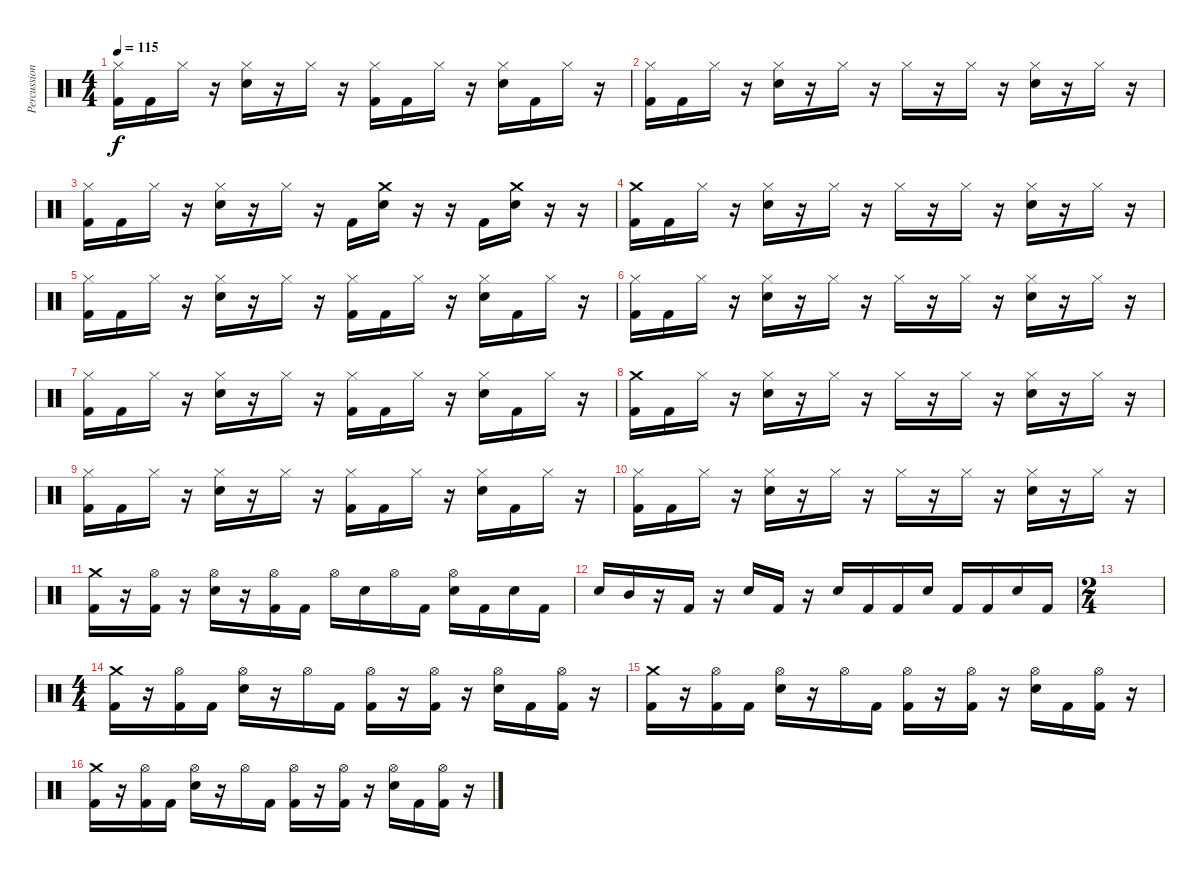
\track ("Percussion" "Percussion") {instrument percussion}
\staff {score}
\articulation defaults
\ts (4 4)
\tempo 115
\clef neutral
\ks c
("Hi-Hat (closed)" "Kick (hit) 2").16{dy f} "Kick (hit) 2".16 "Hi-Hat (closed)".16 r.16 ("Hi-Hat (closed)" "Electric Snare (hit)").16 r.16 "Hi-Hat (closed)".16 r.16 ("Hi-Hat (closed)" "Kick (hit) 2").16 "Kick (hit) 2".16 "Hi-Hat (closed)".16 r.16 ("Hi-Hat (closed)" "Electric Snare (hit)").16 "Kick (hit) 2".16 "Hi-Hat (closed)".16 r.16 |
("Hi-Hat (closed)" "Kick (hit) 2").16 "Kick (hit) 2".16 "Hi-Hat (closed)".16 r.16 ("Hi-Hat (closed)" "Electric Snare (hit)").16 r.16 "Hi-Hat (closed)".16 r.16 "Hi-Hat (closed)".16 r.16 "Hi-Hat (closed)".16 r.16 ("Hi-Hat (closed)" "Electric Snare (hit)").16 r.16 "Hi-Hat (closed)".16 r.16 |
("Hi-Hat (closed)" "Kick (hit) 2").16 "Kick (hit) 2".16 "Hi-Hat (closed)".16 r.16 ("Hi-Hat (closed)" "Electric Snare (hit)").16 r.16 "Hi-Hat (closed)".16 r.16 "Kick (hit) 2".16 ("Crash medium (hit)" "Electric Snare (hit)").16 r.16 r.16 "Kick (hit) 2".16 ("Crash medium (hit)" "Electric Snare (hit)").16 r.16 r.16 |
("Crash medium (hit)" "Kick (hit) 2").16 "Kick (hit) 2".16 "Hi-Hat (closed)".16 r.16 ("Hi-Hat (closed)" "Electric Snare (hit)").16 r.16 "Hi-Hat (closed)".16 r.16 "Hi-Hat (closed)".16 r.16 "Hi-Hat (closed)".16 r.16 ("Hi-Hat (closed)" "Electric Snare (hit)").16 r.16 "Hi-Hat (closed)".16 r.16 |
("Hi-Hat (closed)" "Kick (hit) 2").16 "Kick (hit) 2".16 "Hi-Hat (closed)".16 r.16 ("Hi-Hat (closed)" "Electric Snare (hit)").16 r.16 "Hi-Hat (closed)".16 r.16 ("Hi-Hat (closed)" "Kick (hit) 2").16 "Kick (hit) 2".16 "Hi-Hat (closed)".16 r.16 ("Hi-Hat (closed)" "Electric Snare (hit)").16 "Kick (hit) 2".16 "Hi-Hat (closed)".16 r.16 |
("Hi-Hat (closed)" "Kick (hit) 2").16 "Kick (hit) 2".16 "Hi-Hat (closed)".16 r.16 ("Hi-Hat (closed)" "Electric Snare (hit)").16 r.16 "Hi-Hat (closed)".16 r.16 "Hi-Hat (closed)".16 r.16 "Hi-Hat (closed)".16 r.16 ("Hi-Hat (closed)" "Electric Snare (hit)").16 r.16 "Hi-Hat (closed)".16 r.16 |
("Hi-Hat (closed)" "Kick (hit) 2").16 "Kick (hit) 2".16 "Hi-Hat (closed)".16 r.16 ("Hi-Hat (closed)" "Electric Snare (hit)").16 r.16 "Hi-Hat (closed)".16 r.16 ("Hi-Hat (closed)" "Kick (hit) 2").16 "Kick (hit) 2".16 "Hi-Hat (closed)".16 r.16 ("Hi-Hat (closed)" "Electric Snare (hit)").16 "Kick (hit) 2".16 "Hi-Hat (closed)".16 r.16 |
("Crash medium (hit)" "Kick (hit) 2").16 "Kick (hit) 2".16 "Hi-Hat (closed)".16 r.16 ("Hi-Hat (closed)" "Electric Snare (hit)").16 r.16 "Hi-Hat (closed)".16 r.16 "Hi-Hat (closed)".16 r.16 "Hi-Hat (closed)".16 r.16 ("Hi-Hat (closed)" "Electric Snare (hit)").16 r.16 "Hi-Hat (closed)".16 r.16 |
("Hi-Hat (closed)" "Kick (hit) 2").16 "Kick (hit) 2".16 "Hi-Hat (closed)".16 r.16 ("Hi-Hat (closed)" "Electric Snare (hit)").16 r.16 "Hi-Hat (closed)".16 r.16 ("Hi-Hat (closed)" "Kick (hit) 2").16 "Kick (hit) 2".16 "Hi-Hat (closed)".16 r.16 ("Hi-Hat (closed)" "Electric Snare (hit)").16 "Kick (hit) 2".16 "Hi-Hat (closed)".16 r.16 |
("Hi-Hat (closed)" "Kick (hit) 2").16 "Kick (hit) 2".16 "Hi-Hat (closed)".16 r.16 ("Hi-Hat (closed)" "Electric Snare (hit)").16 r.16 "Hi-Hat (closed)".16 r.16 "Hi-Hat (closed)".16 r.16 "Hi-Hat (closed)".16 r.16 ("Hi-Hat (closed)" "Electric Snare (hit)").16 r.16 "Hi-Hat (closed)".16 r.16 |
("Crash medium (hit)" "Kick (hit) 2").16 r.16 ("Hi-Hat (open)" "Kick (hit) 2").16 r.16 ("Hi-Hat (open)" "Electric Snare (hit)").16 r.16 ("Hi-Hat (open)" "Kick (hit) 2").16 "Kick (hit) 2".16 "Hi-Hat (open)".16 "Electric Snare (hit)".16 "Hi-Hat (open)".16 "Kick (hit) 2".16 ("Hi-Hat (open)" "Electric Snare (hit)").16 "Kick (hit) 2".16 "Snare (hit)".16 "Kick (hit) 2".16 |
"Electric Snare (hit)".16 "Mid Tom (hit)".16 r.16 "Kick (hit) 2".16 r.16 "Electric Snare (hit)".16 "Kick (hit) 2".16 r.16 "Electric Snare (hit)".16 "Kick (hit) 2".16 "Kick (hit) 2".16 "Electric Snare (hit)".16 "Kick (hit) 2".16 "Kick (hit) 2".16 "Electric Snare (hit)".16 "Kick (hit) 2".16 |
\ts (2 4)
|
\ts (4 4)
("Crash medium (hit)" "Kick (hit) 2").16 r.16 ("Hi-Hat (open)" "Kick (hit) 2").16 "Kick (hit) 2".16 ("Hi-Hat (open)" "Electric Snare (hit)").16 r.16 "Hi-Hat (open)".16 "Kick (hit) 2".16 ("Hi-Hat (open)" "Kick (hit) 2").16 r.16 ("Hi-Hat (open)" "Kick (hit) 2").16 r.16 ("Hi-Hat (open)" "Electric Snare (hit)").16 "Kick (hit) 2".16 ("Hi-Hat (open)" "Kick (hit) 2").16 r.16 |
("Crash medium (hit)" "Kick (hit) 2").16 r.16 ("Hi-Hat (open)" "Kick (hit) 2").16 "Kick (hit) 2".16 ("Hi-Hat (open)" "Electric Snare (hit)").16 r.16 "Hi-Hat (open)".16 "Kick (hit) 2".16 ("Hi-Hat (open)" "Kick (hit) 2").16 r.16 ("Hi-Hat (open)" "Kick (hit) 2").16 r.16 ("Hi-Hat (open)" "Electric Snare (hit)").16 "Kick (hit) 2".16 ("Hi-Hat (open)" "Kick (hit) 2").16 r.16 |
("Crash medium (hit)" "Kick (hit) 2").16 r.16 ("Hi-Hat (open)" "Kick (hit) 2").16 "Kick (hit) 2".16 ("Hi-Hat (open)" "Electric Snare (hit)").16 r.16 "Hi-Hat (open)".16 "Kick (hit) 2".16 ("Hi-Hat (open)" "Kick (hit) 2").16 r.16 ("Hi-Hat (open)" "Kick (hit) 2").16 r.16 ("Hi-Hat (open)" "Electric Snare (hit)").16 "Kick (hit) 2".16 ("Hi-Hat (open)" "Kick (hit) 2").16 r.16
